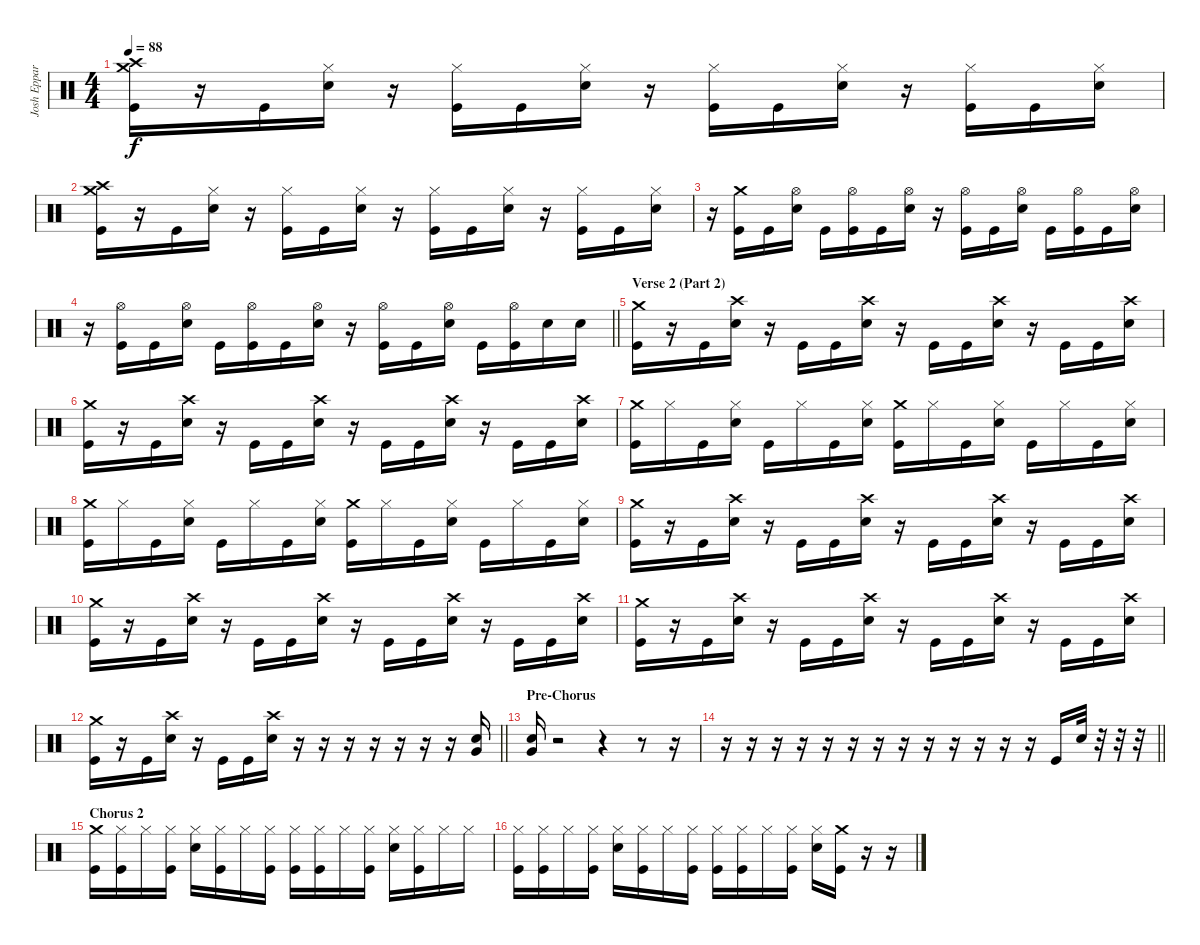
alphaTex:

\track ("Josh Eppard (Drums)" "Josh Eppar") {instrument percussion}
\staff {score}
\articulation defaults
\ts (4 4)
\tempo 88
\clef neutral
\ks c
("Crash high (hit)" "Crash medium (hit)" "Kick (hit)").16{dy f} r.16 "Kick (hit)".16 ("Hi-Hat (closed)" "Electric Snare (hit)").16 r.16 ("Hi-Hat (closed)" "Kick (hit)").16 "Kick (hit)".16 ("Hi-Hat (closed)" "Electric Snare (hit)").16 r.16 ("Hi-Hat (closed)" "Kick (hit)").16 "Kick (hit)".16 ("Hi-Hat (closed)" "Electric Snare (hit)").16 r.16 ("Hi-Hat (closed)" "Kick (hit)").16 "Kick (hit)".16 ("Hi-Hat (closed)" "Electric Snare (hit)").16 |
("Crash high (hit)" "Crash medium (hit)" "Kick (hit)").16 r.16 "Kick (hit)".16 ("Hi-Hat (closed)" "Electric Snare (hit)").16 r.16 ("Hi-Hat (closed)" "Kick (hit)").16 "Kick (hit)".16 ("Hi-Hat (closed)" "Electric Snare (hit)").16 r.16 ("Hi-Hat (closed)" "Kick (hit)").16 "Kick (hit)".16 ("Hi-Hat (closed)" "Electric Snare (hit)").16 r.16 ("Hi-Hat (closed)" "Kick (hit)").16 "Kick (hit)".16 ("Hi-Hat (closed)" "Electric Snare (hit)").16 |
r.16 ("Crash medium (hit)" "Kick (hit)").16 "Kick (hit)".16 ("Hi-Hat (open)" "Electric Snare (hit)").16 "Kick (hit)".16 ("Hi-Hat (open)" "Kick (hit)").16 "Kick (hit)".16 ("Hi-Hat (open)" "Electric Snare (hit)").16 r.16 ("Hi-Hat (open)" "Kick (hit)").16 "Kick (hit)".16 ("Hi-Hat (open)" "Electric Snare (hit)").16 "Kick (hit)".16 ("Hi-Hat (open)" "Kick (hit)").16 "Kick (hit)".16 ("Hi-Hat (open)" "Electric Snare (hit)").16 |
\barLineRight lightlight
r.16 ("Hi-Hat (open)" "Kick (hit)").16 "Kick (hit)".16 ("Hi-Hat (open)" "Electric Snare (hit)").16 "Kick (hit)".16 ("Hi-Hat (open)" "Kick (hit)").16 "Kick (hit)".16 ("Hi-Hat (open)" "Electric Snare (hit)").16 r.16 ("Hi-Hat (open)" "Kick (hit)").16 "Kick (hit)".16 ("Hi-Hat (open)" "Electric Snare (hit)").16 "Kick (hit)".16 ("Hi-Hat (open)" "Kick (hit)").16 "Electric Snare (hit)".16 "Electric Snare (hit)".16 |
\section ("" "Verse 2 (Part 2)")
("Crash medium (hit)" "Kick (hit)").16 r.16 "Kick (hit)".16 ("Crash high (hit)" "Electric Snare (hit)").16 r.16 "Kick (hit)".16 "Kick (hit)".16 ("Crash high (hit)" "Electric Snare (hit)").16 r.16 "Kick (hit)".16 "Kick (hit)".16 ("Crash high (hit)" "Electric Snare (hit)").16 r.16 "Kick (hit)".16 "Kick (hit)".16 ("Crash high (hit)" "Electric Snare (hit)").16 |
("Crash medium (hit)" "Kick (hit)").16 r.16 "Kick (hit)".16 ("Crash high (hit)" "Electric Snare (hit)").16 r.16 "Kick (hit)".16 "Kick (hit)".16 ("Crash high (hit)" "Electric Snare (hit)").16 r.16 "Kick (hit)".16 "Kick (hit)".16 ("Crash high (hit)" "Electric Snare (hit)").16 r.16 "Kick (hit)".16 "Kick (hit)".16 ("Crash high (hit)" "Electric Snare (hit)").16 |
("Crash medium (hit)" "Kick (hit)").16 "Hi-Hat (closed)".16 "Kick (hit)".16 ("Hi-Hat (closed)" "Electric Snare (hit)").16 "Kick (hit)".16 "Hi-Hat (closed)".16 "Kick (hit)".16 ("Hi-Hat (closed)" "Electric Snare (hit)").16 ("Crash medium (hit)" "Kick (hit)").16 "Hi-Hat (closed)".16 "Kick (hit)".16 ("Hi-Hat (closed)" "Electric Snare (hit)").16 "Kick (hit)".16 "Hi-Hat (closed)".16 "Kick (hit)".16 ("Hi-Hat (closed)" "Electric Snare (hit)").16 |
("Crash medium (hit)" "Kick (hit)").16 "Hi-Hat (closed)".16 "Kick (hit)".16 ("Hi-Hat (closed)" "Electric Snare (hit)").16 "Kick (hit)".16 "Hi-Hat (closed)".16 "Kick (hit)".16 ("Hi-Hat (closed)" "Electric Snare (hit)").16 ("Crash medium (hit)" "Kick (hit)").16 "Hi-Hat (closed)".16 "Kick (hit)".16 ("Hi-Hat (closed)" "Electric Snare (hit)").16 "Kick (hit)".16 "Hi-Hat (closed)".16 "Kick (hit)".16 ("Hi-Hat (closed)" "Electric Snare (hit)").16 |
("Crash medium (hit)" "Kick (hit)").16 r.16 "Kick (hit)".16 ("Crash high (hit)" "Electric Snare (hit)").16 r.16 "Kick (hit)".16 "Kick (hit)".16 ("Crash high (hit)" "Electric Snare (hit)").16 r.16 "Kick (hit)".16 "Kick (hit)".16 ("Crash high (hit)" "Electric Snare (hit)").16 r.16 "Kick (hit)".16 "Kick (hit)".16 ("Crash high (hit)" "Electric Snare (hit)").16 |
("Crash medium (hit)" "Kick (hit)").16 r.16 "Kick (hit)".16 ("Crash high (hit)" "Electric Snare (hit)").16 r.16 "Kick (hit)".16 "Kick (hit)".16 ("Crash high (hit)" "Electric Snare (hit)").16 r.16 "Kick (hit)".16 "Kick (hit)".16 ("Crash high (hit)" "Electric Snare (hit)").16 r.16 "Kick (hit)".16 "Kick (hit)".16 ("Crash high (hit)" "Electric Snare (hit)").16 |
("Crash medium (hit)" "Kick (hit)").16 r.16 "Kick (hit)".16 ("Crash high (hit)" "Electric Snare (hit)").16 r.16 "Kick (hit)".16 "Kick (hit)".16 ("Crash high (hit)" "Electric Snare (hit)").16 r.16 "Kick (hit)".16 "Kick (hit)".16 ("Crash high (hit)" "Electric Snare (hit)").16 r.16 "Kick (hit)".16 "Kick (hit)".16 ("Crash high (hit)" "Electric Snare (hit)").16 |
\barLineRight lightlight
("Crash medium (hit)" "Kick (hit)").16 r.16 "Kick (hit)".16 ("Crash high (hit)" "Electric Snare (hit)").16 r.16 "Kick (hit)".16 "Kick (hit)".16 ("Crash high (hit)" "Electric Snare (hit)").16 r.16 r.16 r.16 r.16 r.16 r.16 r.16 ("Very Low Tom (hit)" "Electric Snare (hit)").16 |
\section ("" "Pre-Chorus")
("Very Low Tom (hit)" "Electric Snare (hit)").16 r.2 r.4 r.8 r.16 |
\barLineRight lightlight
r.16 r.16 r.16 r.16 r.16 r.16 r.16 r.16 r.16 r.16 r.16 r.16 r.16 "Kick (hit)".16 "Electric Snare (hit)".32 r.32 r.32 r.32 |
\section ("" "Chorus 2")
("Crash medium (hit)" "Kick (hit)").16 ("Hi-Hat (closed)" "Kick (hit)").16 "Hi-Hat (closed)".16 ("Hi-Hat (closed)" "Kick (hit)").16 ("Hi-Hat (closed)" "Electric Snare (hit)").16 ("Hi-Hat (closed)" "Kick (hit)").16 "Hi-Hat (closed)".16 ("Hi-Hat (closed)" "Kick (hit)").16 ("Hi-Hat (closed)" "Kick (hit)").16 ("Hi-Hat (closed)" "Kick (hit)").16 "Hi-Hat (closed)".16 ("Hi-Hat (closed)" "Kick (hit)").16 ("Hi-Hat (closed)" "Electric Snare (hit)").16 ("Hi-Hat (closed)" "Kick (hit)").16 "Hi-Hat (closed)".16 "Hi-Hat (closed)".16 |
("Hi-Hat (closed)" "Kick (hit)").16 ("Hi-Hat (closed)" "Kick (hit)").16 "Hi-Hat (closed)".16 ("Hi-Hat (closed)" "Kick (hit)").16 ("Hi-Hat (closed)" "Electric Snare (hit)").16 ("Hi-Hat (closed)" "Kick (hit)").16 "Hi-Hat (closed)".16 ("Hi-Hat (closed)" "Kick (hit)").16 ("Hi-Hat (closed)" "Kick (hit)").16 ("Hi-Hat (closed)" "Kick (hit)").16 "Hi-Hat (closed)".16 ("Hi-Hat (closed)" "Kick (hit)").16 ("Hi-Hat (closed)" "Electric Snare (hit)").16 ("Crash medium (hit)" "Kick (hit)").16 r.16 r.16
